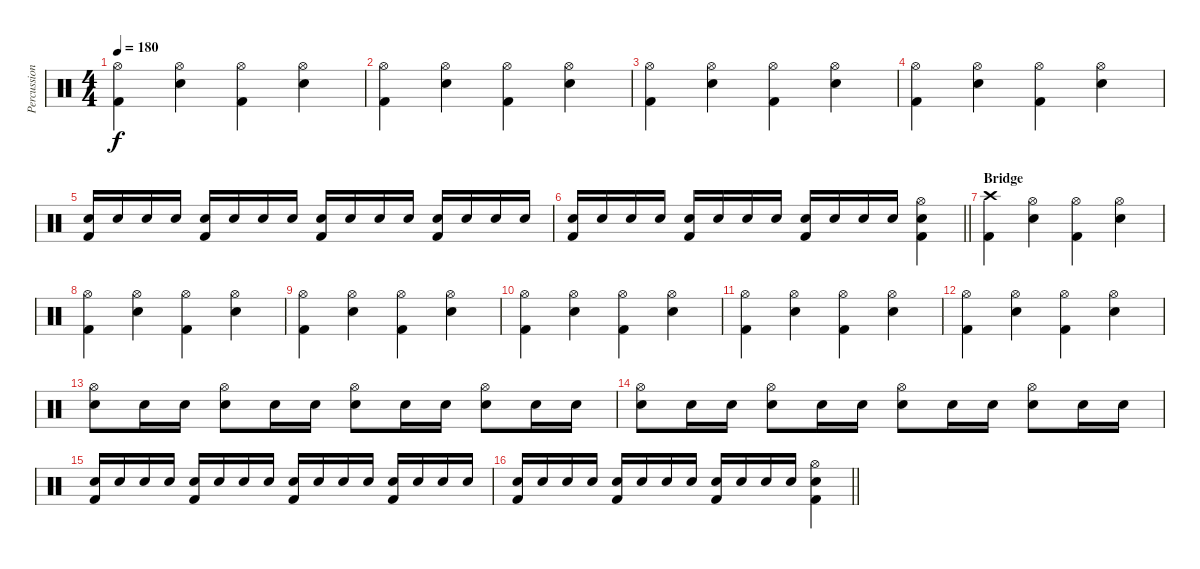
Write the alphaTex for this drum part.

\track ("Percussion" "Percussion") {instrument percussion}
\staff {score}
\articulation defaults
\ts (4 4)
\tempo 180
\clef neutral
\ks c
("Hi-Hat (open)" "Kick (hit) 2").4{dy f} ("Hi-Hat (open)" "Snare (hit) 2").4 ("Hi-Hat (open)" "Kick (hit) 2").4 ("Hi-Hat (open)" "Snare (hit) 2").4 |
("Hi-Hat (open)" "Kick (hit) 2").4 ("Hi-Hat (open)" "Snare (hit) 2").4 ("Hi-Hat (open)" "Kick (hit) 2").4 ("Hi-Hat (open)" "Snare (hit) 2").4 |
("Hi-Hat (open)" "Kick (hit) 2").4 ("Hi-Hat (open)" "Snare (hit) 2").4 ("Hi-Hat (open)" "Kick (hit) 2").4 ("Hi-Hat (open)" "Snare (hit) 2").4 |
("Hi-Hat (open)" "Kick (hit) 2").4 ("Hi-Hat (open)" "Snare (hit) 2").4 ("Hi-Hat (open)" "Kick (hit) 2").4 ("Hi-Hat (open)" "Snare (hit) 2").4 |
("Snare (hit) 2" "Kick (hit) 2").16 "Snare (hit) 2".16 "Snare (hit) 2".16 "Snare (hit) 2".16 ("Snare (hit) 2" "Kick (hit) 2").16 "Snare (hit) 2".16 "Snare (hit) 2".16 "Snare (hit) 2".16 ("Snare (hit) 2" "Kick (hit) 2").16 "Snare (hit) 2".16 "Snare (hit) 2".16 "Snare (hit) 2".16 ("Snare (hit) 2" "Kick (hit) 2").16 "Snare (hit) 2".16 "Snare (hit) 2".16 "Snare (hit) 2".16 |
\barLineRight lightlight
("Snare (hit) 2" "Kick (hit) 2").16 "Snare (hit) 2".16 "Snare (hit) 2".16 "Snare (hit) 2".16 ("Snare (hit) 2" "Kick (hit) 2").16 "Snare (hit) 2".16 "Snare (hit) 2".16 "Snare (hit) 2".16 ("Snare (hit) 2" "Kick (hit) 2").16 "Snare (hit) 2".16 "Snare (hit) 2".16 "Snare (hit) 2".16 ("Hi-Hat (open)" "Snare (hit) 2" "Kick (hit) 2").4 |
\section ("" "Bridge")
("Crash high (hit)" "Kick (hit) 2").4 ("Hi-Hat (open)" "Snare (hit) 2").4 ("Hi-Hat (open)" "Kick (hit) 2").4 ("Hi-Hat (open)" "Snare (hit) 2").4 |
("Hi-Hat (open)" "Kick (hit) 2").4 ("Hi-Hat (open)" "Snare (hit) 2").4 ("Hi-Hat (open)" "Kick (hit) 2").4 ("Hi-Hat (open)" "Snare (hit) 2").4 |
("Hi-Hat (open)" "Kick (hit) 2").4 ("Hi-Hat (open)" "Snare (hit) 2").4 ("Hi-Hat (open)" "Kick (hit) 2").4 ("Hi-Hat (open)" "Snare (hit) 2").4 |
("Hi-Hat (open)" "Kick (hit) 2").4 ("Hi-Hat (open)" "Snare (hit) 2").4 ("Hi-Hat (open)" "Kick (hit) 2").4 ("Hi-Hat (open)" "Snare (hit) 2").4 |
("Hi-Hat (open)" "Kick (hit) 2").4 ("Hi-Hat (open)" "Snare (hit) 2").4 ("Hi-Hat (open)" "Kick (hit) 2").4 ("Hi-Hat (open)" "Snare (hit) 2").4 |
("Hi-Hat (open)" "Kick (hit) 2").4 ("Hi-Hat (open)" "Snare (hit) 2").4 ("Hi-Hat (open)" "Kick (hit) 2").4 ("Hi-Hat (open)" "Snare (hit) 2").4 |
("Hi-Hat (open)" "Snare (hit) 2").8 "Snare (hit) 2".16 "Snare (hit) 2".16 ("Hi-Hat (open)" "Snare (hit) 2").8 "Snare (hit) 2".16 "Snare (hit) 2".16 ("Hi-Hat (open)" "Snare (hit) 2").8 "Snare (hit) 2".16 "Snare (hit) 2".16 ("Hi-Hat (open)" "Snare (hit) 2").8 "Snare (hit) 2".16 "Snare (hit) 2".16 |
("Hi-Hat (open)" "Snare (hit) 2").8 "Snare (hit) 2".16 "Snare (hit) 2".16 ("Hi-Hat (open)" "Snare (hit) 2").8 "Snare (hit) 2".16 "Snare (hit) 2".16 ("Hi-Hat (open)" "Snare (hit) 2").8 "Snare (hit) 2".16 "Snare (hit) 2".16 ("Hi-Hat (open)" "Snare (hit) 2").8 "Snare (hit) 2".16 "Snare (hit) 2".16 |
("Snare (hit) 2" "Kick (hit) 2").16 "Snare (hit) 2".16 "Snare (hit) 2".16 "Snare (hit) 2".16 ("Snare (hit) 2" "Kick (hit) 2").16 "Snare (hit) 2".16 "Snare (hit) 2".16 "Snare (hit) 2".16 ("Snare (hit) 2" "Kick (hit) 2").16 "Snare (hit) 2".16 "Snare (hit) 2".16 "Snare (hit) 2".16 ("Snare (hit) 2" "Kick (hit) 2").16 "Snare (hit) 2".16 "Snare (hit) 2".16 "Snare (hit) 2".16 |
\barLineRight lightlight
("Snare (hit) 2" "Kick (hit) 2").16 "Snare (hit) 2".16 "Snare (hit) 2".16 "Snare (hit) 2".16 ("Snare (hit) 2" "Kick (hit) 2").16 "Snare (hit) 2".16 "Snare (hit) 2".16 "Snare (hit) 2".16 ("Snare (hit) 2" "Kick (hit) 2").16 "Snare (hit) 2".16 "Snare (hit) 2".16 "Snare (hit) 2".16 ("Hi-Hat (open)" "Snare (hit) 2" "Kick (hit) 2").4
